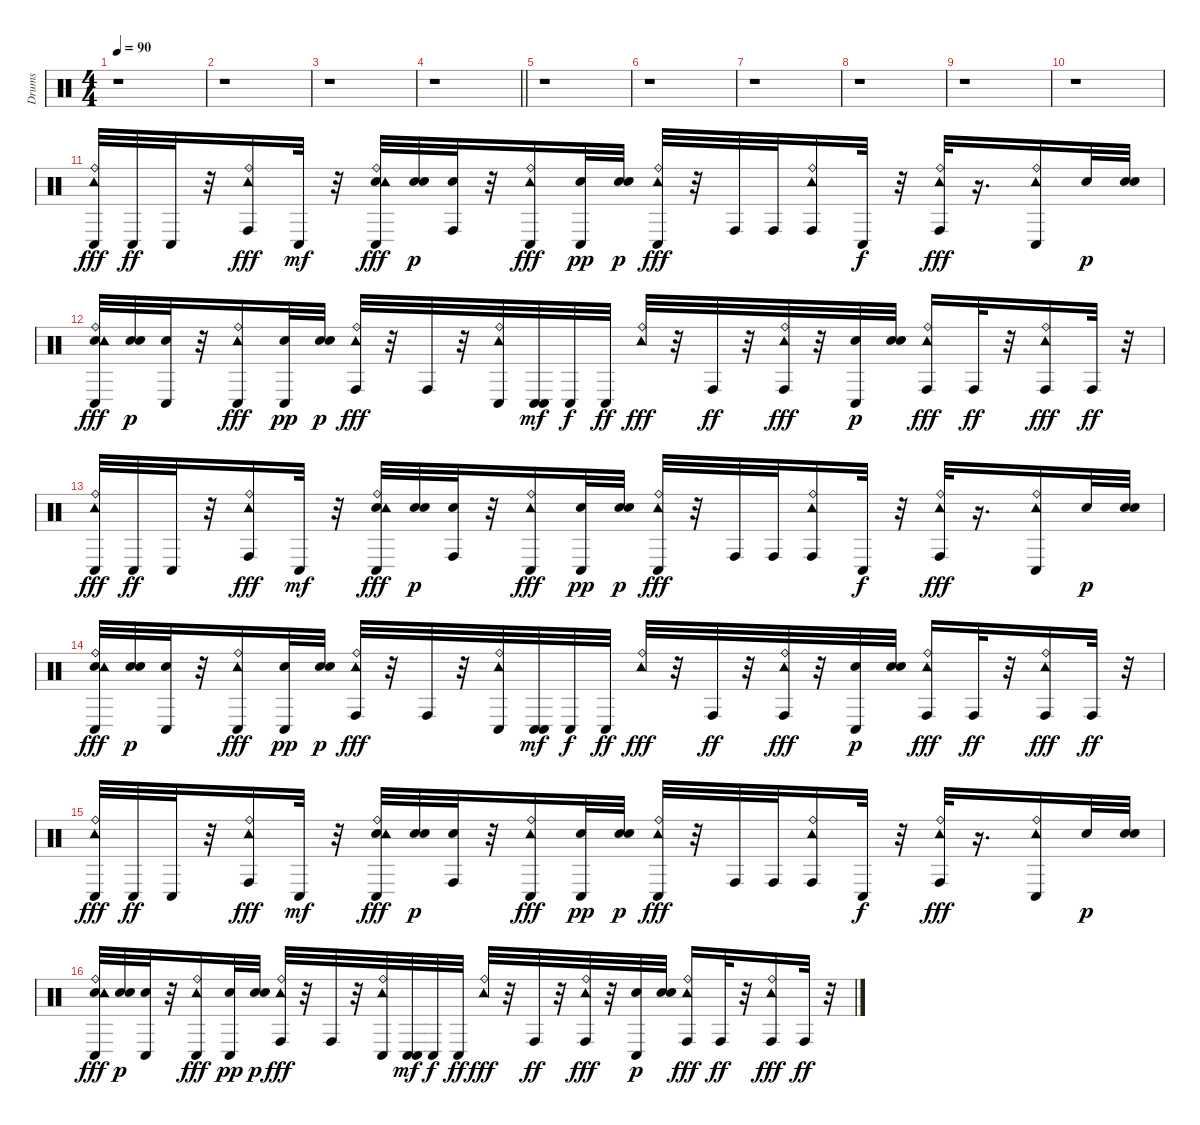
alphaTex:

\track ("Drums" "Drums") {instrument percussion}
\staff {score}
\articulation defaults
\ts (4 4)
\tempo 90
\clef neutral
\ks c
r.1{dy p} |
r.1 |
r.1 |
\barLineRight lightlight
r.1 |
r.1 |
r.1 |
r.1 |
r.1 |
r.1 |
r.1 |
("Conga low (hit)" "Ride (bell)" "Tambourine (hit)").32{dy fff} "Conga low (hit)".32{dy ff} "Conga low (hit)".32 r.32 ("Conga high (hit)" "Ride (bell)" "Tambourine (hit)").16{dy fff} "Conga low (hit)".32{dy mf} r.32 ("Conga low (hit)" "Ride (bell)" "Electric Snare (hit)" "Tambourine (hit)").32{dy fff} ("Electric Snare (hit)" "Electric Snare (hit)").32{dy p} ("Conga high (hit)" "Electric Snare (hit)").32 r.32 ("Conga low (hit)" "Ride (bell)" "Tambourine (hit)").16{dy fff} ("Conga low (hit)" "Electric Snare (hit)").32{dy pp} ("Electric Snare (hit)" "Electric Snare (hit)").32{dy p} ("Ride (bell)" "Tambourine (hit)" "Conga low (hit)").32{dy fff} r.32 "Conga high (hit)".32 "Conga high (hit)".32 ("Ride (bell)" "Tambourine (hit)" "Conga high (hit)").16 "Conga low (hit)".32{dy f} r.32 ("Conga high (hit)" "Ride (bell)" "Tambourine (hit)").32{dy fff} r.16{d} ("Conga low (hit)" "Ride (bell)" "Tambourine (hit)").16 "Electric Snare (hit)".32{dy p} ("Electric Snare (hit)" "Electric Snare (hit)").32 |
("Conga low (hit)" "Ride (bell)" "Electric Snare (hit)" "Tambourine (hit)").32{dy fff} ("Electric Snare (hit)" "Electric Snare (hit)").32{dy p} ("Conga low (hit)" "Electric Snare (hit)").32 r.32 ("Conga low (hit)" "Ride (bell)" "Tambourine (hit)").16{dy fff} ("Conga low (hit)" "Electric Snare (hit)").32{dy pp} ("Electric Snare (hit)" "Electric Snare (hit)").32{dy p} ("Conga high (hit)" "Ride (bell)" "Tambourine (hit)").32{dy fff} r.32 "Conga high (hit)".32 r.32 ("Conga low (hit)" "Ride (bell)" "Tambourine (hit)").32 ("Conga low (hit)" "Conga low (hit)").32{dy mf} "Conga low (hit)".32{dy f} "Conga low (hit)".32{dy ff} ("Ride (bell)" "Tambourine (hit)").32{dy fff} r.32 "Conga high (hit)".32{dy ff} r.32 ("Ride (bell)" "Conga high (hit)" "Tambourine (hit)").32{dy fff} r.32 ("Conga low (hit)" "Electric Snare (hit)").32{dy p} ("Electric Snare (hit)" "Electric Snare (hit)").32 ("Conga high (hit)" "Ride (bell)" "Tambourine (hit)").16{dy fff} "Conga high (hit)".32{dy ff} r.32 ("Ride (bell)" "Conga high (hit)" "Tambourine (hit)").16{dy fff} "Conga high (hit)".32{dy ff} r.32 |
("Conga low (hit)" "Ride (bell)" "Tambourine (hit)").32{dy fff} "Conga low (hit)".32{dy ff} "Conga low (hit)".32 r.32 ("Conga high (hit)" "Ride (bell)" "Tambourine (hit)").16{dy fff} "Conga low (hit)".32{dy mf} r.32 ("Conga low (hit)" "Ride (bell)" "Electric Snare (hit)" "Tambourine (hit)").32{dy fff} ("Electric Snare (hit)" "Electric Snare (hit)").32{dy p} ("Conga high (hit)" "Electric Snare (hit)").32 r.32 ("Conga low (hit)" "Ride (bell)" "Tambourine (hit)").16{dy fff} ("Conga low (hit)" "Electric Snare (hit)").32{dy pp} ("Electric Snare (hit)" "Electric Snare (hit)").32{dy p} ("Ride (bell)" "Tambourine (hit)" "Conga low (hit)").32{dy fff} r.32 "Conga high (hit)".32 "Conga high (hit)".32 ("Ride (bell)" "Tambourine (hit)" "Conga high (hit)").16 "Conga low (hit)".32{dy f} r.32 ("Conga high (hit)" "Ride (bell)" "Tambourine (hit)").32{dy fff} r.16{d} ("Conga low (hit)" "Ride (bell)" "Tambourine (hit)").16 "Electric Snare (hit)".32{dy p} ("Electric Snare (hit)" "Electric Snare (hit)").32 |
("Conga low (hit)" "Ride (bell)" "Electric Snare (hit)" "Tambourine (hit)").32{dy fff} ("Electric Snare (hit)" "Electric Snare (hit)").32{dy p} ("Conga low (hit)" "Electric Snare (hit)").32 r.32 ("Conga low (hit)" "Ride (bell)" "Tambourine (hit)").16{dy fff} ("Conga low (hit)" "Electric Snare (hit)").32{dy pp} ("Electric Snare (hit)" "Electric Snare (hit)").32{dy p} ("Conga high (hit)" "Ride (bell)" "Tambourine (hit)").32{dy fff} r.32 "Conga high (hit)".32 r.32 ("Conga low (hit)" "Ride (bell)" "Tambourine (hit)").32 ("Conga low (hit)" "Conga low (hit)").32{dy mf} "Conga low (hit)".32{dy f} "Conga low (hit)".32{dy ff} ("Ride (bell)" "Tambourine (hit)").32{dy fff} r.32 "Conga high (hit)".32{dy ff} r.32 ("Ride (bell)" "Conga high (hit)" "Tambourine (hit)").32{dy fff} r.32 ("Conga low (hit)" "Electric Snare (hit)").32{dy p} ("Electric Snare (hit)" "Electric Snare (hit)").32 ("Conga high (hit)" "Ride (bell)" "Tambourine (hit)").16{dy fff} "Conga high (hit)".32{dy ff} r.32 ("Ride (bell)" "Conga high (hit)" "Tambourine (hit)").16{dy fff} "Conga high (hit)".32{dy ff} r.32 |
("Conga low (hit)" "Ride (bell)" "Tambourine (hit)").32{dy fff} "Conga low (hit)".32{dy ff} "Conga low (hit)".32 r.32 ("Conga high (hit)" "Ride (bell)" "Tambourine (hit)").16{dy fff} "Conga low (hit)".32{dy mf} r.32 ("Conga low (hit)" "Ride (bell)" "Electric Snare (hit)" "Tambourine (hit)").32{dy fff} ("Electric Snare (hit)" "Electric Snare (hit)").32{dy p} ("Conga high (hit)" "Electric Snare (hit)").32 r.32 ("Conga low (hit)" "Ride (bell)" "Tambourine (hit)").16{dy fff} ("Conga low (hit)" "Electric Snare (hit)").32{dy pp} ("Electric Snare (hit)" "Electric Snare (hit)").32{dy p} ("Ride (bell)" "Tambourine (hit)" "Conga low (hit)").32{dy fff} r.32 "Conga high (hit)".32 "Conga high (hit)".32 ("Ride (bell)" "Tambourine (hit)" "Conga high (hit)").16 "Conga low (hit)".32{dy f} r.32 ("Conga high (hit)" "Ride (bell)" "Tambourine (hit)").32{dy fff} r.16{d} ("Conga low (hit)" "Ride (bell)" "Tambourine (hit)").16 "Electric Snare (hit)".32{dy p} ("Electric Snare (hit)" "Electric Snare (hit)").32 |
("Conga low (hit)" "Ride (bell)" "Electric Snare (hit)" "Tambourine (hit)").32{dy fff} ("Electric Snare (hit)" "Electric Snare (hit)").32{dy p} ("Conga low (hit)" "Electric Snare (hit)").32 r.32 ("Conga low (hit)" "Ride (bell)" "Tambourine (hit)").16{dy fff} ("Conga low (hit)" "Electric Snare (hit)").32{dy pp} ("Electric Snare (hit)" "Electric Snare (hit)").32{dy p} ("Conga high (hit)" "Ride (bell)" "Tambourine (hit)").32{dy fff} r.32 "Conga high (hit)".32 r.32 ("Conga low (hit)" "Ride (bell)" "Tambourine (hit)").32 ("Conga low (hit)" "Conga low (hit)").32{dy mf} "Conga low (hit)".32{dy f} "Conga low (hit)".32{dy ff} ("Ride (bell)" "Tambourine (hit)").32{dy fff} r.32 "Conga high (hit)".32{dy ff} r.32 ("Ride (bell)" "Conga high (hit)" "Tambourine (hit)").32{dy fff} r.32 ("Conga low (hit)" "Electric Snare (hit)").32{dy p} ("Electric Snare (hit)" "Electric Snare (hit)").32 ("Conga high (hit)" "Ride (bell)" "Tambourine (hit)").16{dy fff} "Conga high (hit)".32{dy ff} r.32 ("Ride (bell)" "Conga high (hit)" "Tambourine (hit)").16{dy fff} "Conga high (hit)".32{dy ff} r.32
